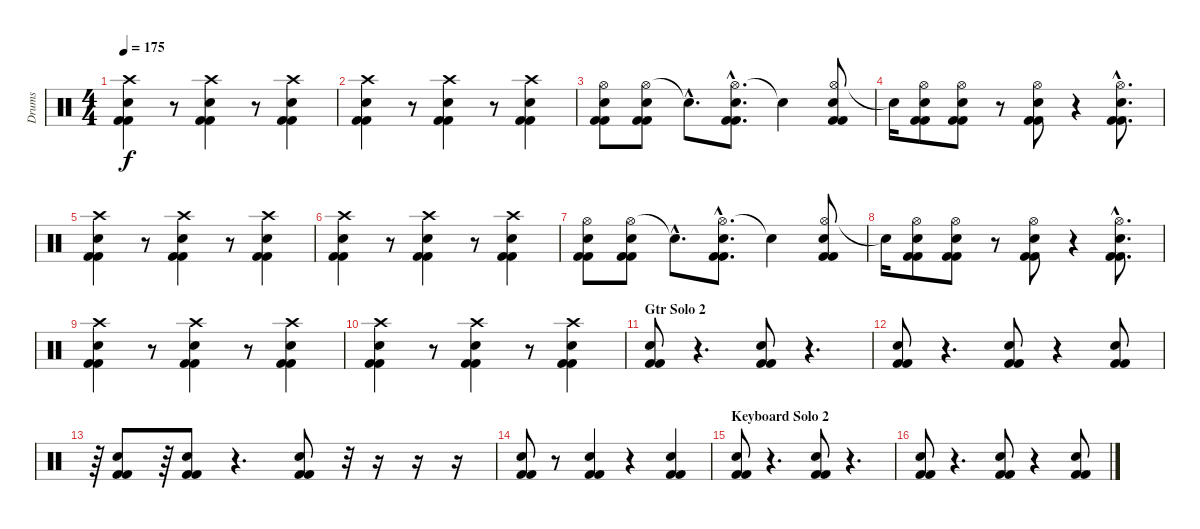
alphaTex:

\track ("Drums" "Drums") {instrument percussion}
\staff {score}
\articulation defaults
\ts (4 4)
\tempo 175
\clef neutral
\ks c
("Crash high (hit)" "Snare (hit) 2" "Kick (hit) 2" "Kick (hit) 2").4{dy f} r.8 ("Crash high (hit)" "Snare (hit) 2" "Kick (hit) 2" "Kick (hit) 2").4 r.8 ("Crash high (hit)" "Snare (hit) 2" "Kick (hit) 2" "Kick (hit) 2").4 |
("Crash high (hit)" "Snare (hit) 2" "Kick (hit) 2" "Kick (hit) 2").4 r.8 ("Crash high (hit)" "Snare (hit) 2" "Kick (hit) 2" "Kick (hit) 2").4 r.8 ("Crash high (hit)" "Snare (hit) 2" "Kick (hit) 2" "Kick (hit) 2").4 |
("Hi-Hat (open)" "Snare (hit) 2" "Kick (hit) 2" "Kick (hit) 2").8 ("Hi-Hat (open)" "Snare (hit) 2" "Kick (hit) 2" "Kick (hit) 2").8 "Snare (hit)"{hac t}.8{d} ("Hi-Hat (open)"{hac} "Snare (hit) 2"{hac} "Kick (hit) 2"{hac} "Kick (hit) 2"{hac}).8{d} "Snare (hit)"{t}.4 ("Hi-Hat (open)" "Electric Snare (hit)" "Kick (hit) 2" "Kick (hit) 2").8 |
"Snare (hit)"{t}.16 ("Hi-Hat (open)" "Snare (hit) 2" "Kick (hit) 2" "Kick (hit) 2").8 ("Hi-Hat (open)" "Snare (hit) 2" "Kick (hit) 2" "Kick (hit) 2").8 r.8 ("Hi-Hat (open)" "Snare (hit) 2" "Kick (hit) 2" "Kick (hit) 2").8 r.4 ("Hi-Hat (open)"{hac} "Snare (hit) 2"{hac} "Kick (hit) 2"{hac} "Kick (hit) 2"{hac}).8{d} |
("Crash high (hit)" "Snare (hit) 2" "Kick (hit) 2" "Kick (hit) 2").4 r.8 ("Crash high (hit)" "Snare (hit) 2" "Kick (hit) 2" "Kick (hit) 2").4 r.8 ("Crash high (hit)" "Snare (hit) 2" "Kick (hit) 2" "Kick (hit) 2").4 |
("Crash high (hit)" "Snare (hit) 2" "Kick (hit) 2" "Kick (hit) 2").4 r.8 ("Crash high (hit)" "Snare (hit) 2" "Kick (hit) 2" "Kick (hit) 2").4 r.8 ("Crash high (hit)" "Snare (hit) 2" "Kick (hit) 2" "Kick (hit) 2").4 |
("Hi-Hat (open)" "Snare (hit) 2" "Kick (hit) 2" "Kick (hit) 2").8 ("Hi-Hat (open)" "Snare (hit) 2" "Kick (hit) 2" "Kick (hit) 2").8 "Snare (hit)"{hac t}.8{d} ("Hi-Hat (open)"{hac} "Snare (hit) 2"{hac} "Kick (hit) 2"{hac} "Kick (hit) 2"{hac}).8{d} "Snare (hit)"{t}.4 ("Hi-Hat (open)" "Electric Snare (hit)" "Kick (hit) 2" "Kick (hit) 2").8 |
"Snare (hit)"{t}.16 ("Hi-Hat (open)" "Snare (hit) 2" "Kick (hit) 2" "Kick (hit) 2").8 ("Hi-Hat (open)" "Snare (hit) 2" "Kick (hit) 2" "Kick (hit) 2").8 r.8 ("Hi-Hat (open)" "Snare (hit) 2" "Kick (hit) 2" "Kick (hit) 2").8 r.4 ("Hi-Hat (open)"{hac} "Snare (hit) 2"{hac} "Kick (hit) 2"{hac} "Kick (hit) 2"{hac}).8{d} |
("Crash high (hit)" "Snare (hit) 2" "Kick (hit) 2" "Kick (hit) 2").4 r.8 ("Crash high (hit)" "Snare (hit) 2" "Kick (hit) 2" "Kick (hit) 2").4 r.8 ("Crash high (hit)" "Snare (hit) 2" "Kick (hit) 2" "Kick (hit) 2").4 |
("Crash high (hit)" "Snare (hit) 2" "Kick (hit) 2" "Kick (hit) 2").4 r.8 ("Crash high (hit)" "Snare (hit) 2" "Kick (hit) 2" "Kick (hit) 2").4 r.8 ("Crash high (hit)" "Snare (hit) 2" "Kick (hit) 2" "Kick (hit) 2").4 |
\section ("" "Gtr Solo 2")
("Snare (hit) 2" "Kick (hit) 2" "Kick (hit) 2").8 r.4{d} ("Snare (hit) 2" "Kick (hit) 2" "Kick (hit) 2").8 r.4{d} |
("Snare (hit) 2" "Kick (hit) 2" "Kick (hit) 2").8 r.4{d} ("Snare (hit) 2" "Kick (hit) 2" "Kick (hit) 2").8 r.4 ("Snare (hit) 2" "Kick (hit) 2" "Kick (hit) 2").8 |
r.64 ("Snare (hit) 2" "Kick (hit) 2" "Kick (hit) 2").8 r.64 ("Snare (hit) 2" "Kick (hit) 2" "Kick (hit) 2").8 r.4{d} ("Snare (hit) 2" "Kick (hit) 2" "Kick (hit) 2").8 r.32 r.16 r.16 r.16 |
("Snare (hit) 2" "Kick (hit) 2" "Kick (hit) 2").8 r.8 ("Snare (hit) 2" "Kick (hit) 2" "Kick (hit) 2").4 r.4 ("Snare (hit) 2" "Kick (hit) 2" "Kick (hit) 2").4 |
\section ("" "Keyboard Solo 2")
("Snare (hit) 2" "Kick (hit) 2" "Kick (hit) 2").8 r.4{d} ("Snare (hit) 2" "Kick (hit) 2" "Kick (hit) 2").8 r.4{d} |
("Snare (hit) 2" "Kick (hit) 2" "Kick (hit) 2").8 r.4{d} ("Snare (hit) 2" "Kick (hit) 2" "Kick (hit) 2").8 r.4 ("Snare (hit) 2" "Kick (hit) 2" "Kick (hit) 2").8
